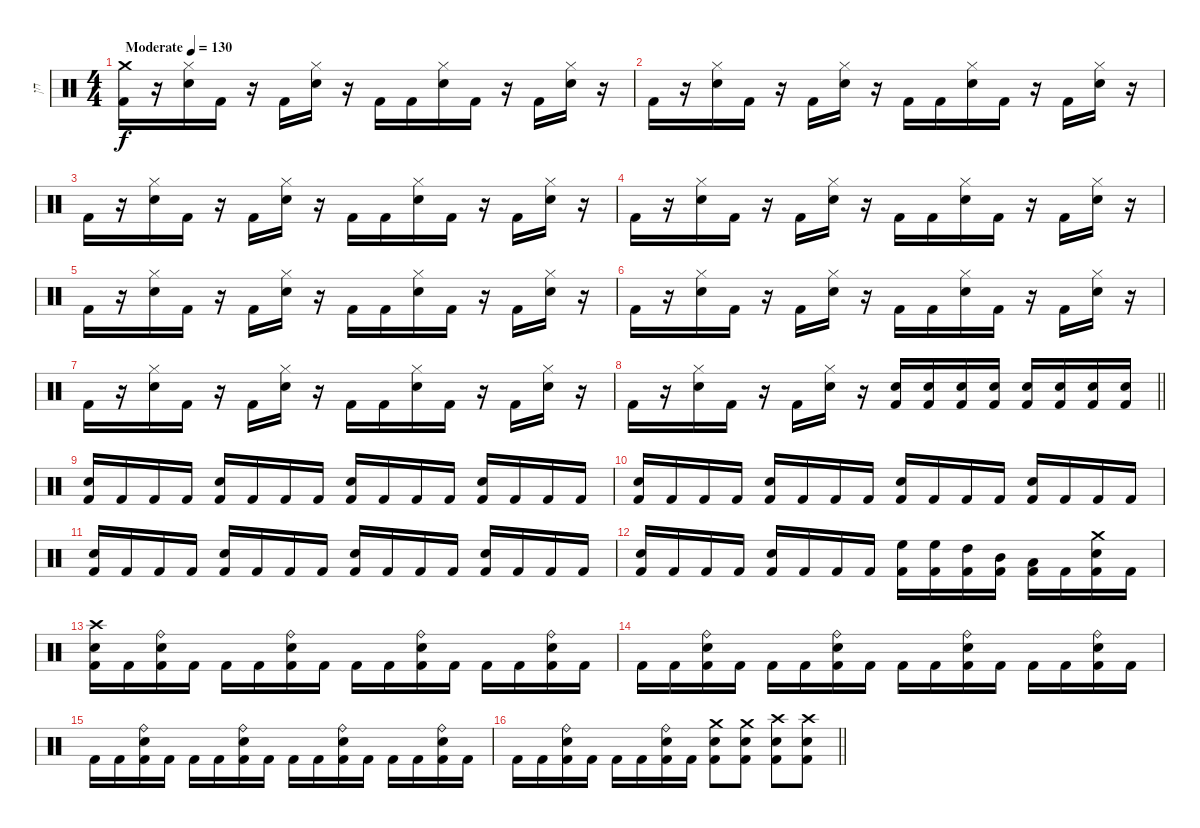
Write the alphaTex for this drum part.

\track ("חן" "חן") {instrument percussion}
\staff {score}
\articulation defaults
\ts (4 4)
\tempo (130 "Moderate")
\clef neutral
\ks c
("Crash medium (hit)" "Kick (hit) 2").16{dy f} r.16 ("Hi-Hat (closed)" "Electric Snare (hit)").16 "Kick (hit) 2".16 r.16 "Kick (hit) 2".16 ("Hi-Hat (closed)" "Electric Snare (hit)").16 r.16 "Kick (hit) 2".16 "Kick (hit) 2".16 ("Hi-Hat (closed)" "Electric Snare (hit)").16 "Kick (hit) 2".16 r.16 "Kick (hit) 2".16 ("Hi-Hat (closed)" "Electric Snare (hit)").16 r.16 |
"Kick (hit) 2".16 r.16 ("Hi-Hat (closed)" "Electric Snare (hit)").16 "Kick (hit) 2".16 r.16 "Kick (hit) 2".16 ("Hi-Hat (closed)" "Electric Snare (hit)").16 r.16 "Kick (hit) 2".16 "Kick (hit) 2".16 ("Hi-Hat (closed)" "Electric Snare (hit)").16 "Kick (hit) 2".16 r.16 "Kick (hit) 2".16 ("Hi-Hat (closed)" "Electric Snare (hit)").16 r.16 |
"Kick (hit) 2".16 r.16 ("Hi-Hat (closed)" "Electric Snare (hit)").16 "Kick (hit) 2".16 r.16 "Kick (hit) 2".16 ("Hi-Hat (closed)" "Electric Snare (hit)").16 r.16 "Kick (hit) 2".16 "Kick (hit) 2".16 ("Hi-Hat (closed)" "Electric Snare (hit)").16 "Kick (hit) 2".16 r.16 "Kick (hit) 2".16 ("Hi-Hat (closed)" "Electric Snare (hit)").16 r.16 |
"Kick (hit) 2".16 r.16 ("Hi-Hat (closed)" "Electric Snare (hit)").16 "Kick (hit) 2".16 r.16 "Kick (hit) 2".16 ("Hi-Hat (closed)" "Electric Snare (hit)").16 r.16 "Kick (hit) 2".16 "Kick (hit) 2".16 ("Hi-Hat (closed)" "Electric Snare (hit)").16 "Kick (hit) 2".16 r.16 "Kick (hit) 2".16 ("Hi-Hat (closed)" "Electric Snare (hit)").16 r.16 |
"Kick (hit) 2".16 r.16 ("Hi-Hat (closed)" "Electric Snare (hit)").16 "Kick (hit) 2".16 r.16 "Kick (hit) 2".16 ("Hi-Hat (closed)" "Electric Snare (hit)").16 r.16 "Kick (hit) 2".16 "Kick (hit) 2".16 ("Hi-Hat (closed)" "Electric Snare (hit)").16 "Kick (hit) 2".16 r.16 "Kick (hit) 2".16 ("Hi-Hat (closed)" "Electric Snare (hit)").16 r.16 |
"Kick (hit) 2".16 r.16 ("Hi-Hat (closed)" "Electric Snare (hit)").16 "Kick (hit) 2".16 r.16 "Kick (hit) 2".16 ("Hi-Hat (closed)" "Electric Snare (hit)").16 r.16 "Kick (hit) 2".16 "Kick (hit) 2".16 ("Hi-Hat (closed)" "Electric Snare (hit)").16 "Kick (hit) 2".16 r.16 "Kick (hit) 2".16 ("Hi-Hat (closed)" "Electric Snare (hit)").16 r.16 |
"Kick (hit) 2".16 r.16 ("Hi-Hat (closed)" "Electric Snare (hit)").16 "Kick (hit) 2".16 r.16 "Kick (hit) 2".16 ("Hi-Hat (closed)" "Electric Snare (hit)").16 r.16 "Kick (hit) 2".16 "Kick (hit) 2".16 ("Hi-Hat (closed)" "Electric Snare (hit)").16 "Kick (hit) 2".16 r.16 "Kick (hit) 2".16 ("Hi-Hat (closed)" "Electric Snare (hit)").16 r.16 |
\barLineRight lightlight "Kick (hit) 2".16
r.16 ("Hi-Hat (closed)" "Electric Snare (hit)").16 "Kick (hit) 2".16 r.16 "Kick (hit) 2".16 ("Hi-Hat (closed)" "Electric Snare (hit)").16 r.16 ("Electric Snare (hit)" "Kick (hit) 2").16 ("Electric Snare (hit)" "Kick (hit) 2").16 ("Electric Snare (hit)" "Kick (hit) 2").16 ("Electric Snare (hit)" "Kick (hit) 2").16 ("Electric Snare (hit)" "Kick (hit) 2").16 ("Electric Snare (hit)" "Kick (hit) 2").16 ("Electric Snare (hit)" "Kick (hit) 2").16 ("Electric Snare (hit)" "Kick (hit) 2").16 |
("Electric Snare (hit)" "Kick (hit) 2").16 "Kick (hit) 2".16 "Kick (hit) 2".16 "Kick (hit) 2".16 ("Electric Snare (hit)" "Kick (hit) 2").16 "Kick (hit) 2".16 "Kick (hit) 2".16 "Kick (hit) 2".16 ("Electric Snare (hit)" "Kick (hit) 2").16 "Kick (hit) 2".16 "Kick (hit) 2".16 "Kick (hit) 2".16 ("Electric Snare (hit)" "Kick (hit) 2").16 "Kick (hit) 2".16 "Kick (hit) 2".16 "Kick (hit) 2".16 |
("Electric Snare (hit)" "Kick (hit) 2").16 "Kick (hit) 2".16 "Kick (hit) 2".16 "Kick (hit) 2".16 ("Electric Snare (hit)" "Kick (hit) 2").16 "Kick (hit) 2".16 "Kick (hit) 2".16 "Kick (hit) 2".16 ("Electric Snare (hit)" "Kick (hit) 2").16 "Kick (hit) 2".16 "Kick (hit) 2".16 "Kick (hit) 2".16 ("Electric Snare (hit)" "Kick (hit) 2").16 "Kick (hit) 2".16 "Kick (hit) 2".16 "Kick (hit) 2".16 |
("Electric Snare (hit)" "Kick (hit) 2").16 "Kick (hit) 2".16 "Kick (hit) 2".16 "Kick (hit) 2".16 ("Electric Snare (hit)" "Kick (hit) 2").16 "Kick (hit) 2".16 "Kick (hit) 2".16 "Kick (hit) 2".16 ("Electric Snare (hit)" "Kick (hit) 2").16 "Kick (hit) 2".16 "Kick (hit) 2".16 "Kick (hit) 2".16 ("Electric Snare (hit)" "Kick (hit) 2").16 "Kick (hit) 2".16 "Kick (hit) 2".16 "Kick (hit) 2".16 |
("Electric Snare (hit)" "Kick (hit) 2").16 "Kick (hit) 2".16 "Kick (hit) 2".16 "Kick (hit) 2".16 ("Electric Snare (hit)" "Kick (hit) 2").16 "Kick (hit) 2".16 "Kick (hit) 2".16 "Kick (hit) 2".16 ("High Floor Tom (hit)" "Kick (hit) 2").16 ("High Floor Tom (hit)" "Kick (hit) 2").16 ("High Tom (hit)" "Kick (hit) 2").16 ("Mid Tom (hit)" "Kick (hit) 2").16 ("Low Tom (hit)" "Kick (hit) 2").16 "Kick (hit) 2".16 ("Crash medium (hit)" "Electric Snare (hit)" "Kick (hit) 2").16 "Kick (hit) 2".16 |
("Crash high (hit)" "Electric Snare (hit)" "Kick (hit) 2").16 "Kick (hit) 2".16 ("Ride (bell)" "Electric Snare (hit)" "Kick (hit) 2").16 "Kick (hit) 2".16 "Kick (hit) 2".16 "Kick (hit) 2".16 ("Ride (bell)" "Electric Snare (hit)" "Kick (hit) 2").16 "Kick (hit) 2".16 "Kick (hit) 2".16 "Kick (hit) 2".16 ("Ride (bell)" "Electric Snare (hit)" "Kick (hit) 2").16 "Kick (hit) 2".16 "Kick (hit) 2".16 "Kick (hit) 2".16 ("Ride (bell)" "Electric Snare (hit)" "Kick (hit) 2").16 "Kick (hit) 2".16 |
"Kick (hit) 2".16 "Kick (hit) 2".16 ("Ride (bell)" "Electric Snare (hit)" "Kick (hit) 2").16 "Kick (hit) 2".16 "Kick (hit) 2".16 "Kick (hit) 2".16 ("Ride (bell)" "Electric Snare (hit)" "Kick (hit) 2").16 "Kick (hit) 2".16 "Kick (hit) 2".16 "Kick (hit) 2".16 ("Ride (bell)" "Electric Snare (hit)" "Kick (hit) 2").16 "Kick (hit) 2".16 "Kick (hit) 2".16 "Kick (hit) 2".16 ("Ride (bell)" "Electric Snare (hit)" "Kick (hit) 2").16 "Kick (hit) 2".16 |
"Kick (hit) 2".16 "Kick (hit) 2".16 ("Ride (bell)" "Electric Snare (hit)" "Kick (hit) 2").16 "Kick (hit) 2".16 "Kick (hit) 2".16 "Kick (hit) 2".16 ("Ride (bell)" "Electric Snare (hit)" "Kick (hit) 2").16 "Kick (hit) 2".16 "Kick (hit) 2".16 "Kick (hit) 2".16 ("Ride (bell)" "Electric Snare (hit)" "Kick (hit) 2").16 "Kick (hit) 2".16 "Kick (hit) 2".16 "Kick (hit) 2".16 ("Ride (bell)" "Electric Snare (hit)" "Kick (hit) 2").16 "Kick (hit) 2".16 |
\barLineRight lightlight "Kick (hit) 2".16 "Kick (hit) 2".16
("Ride (bell)" "Electric Snare (hit)" "Kick (hit) 2").16 "Kick (hit) 2".16 "Kick (hit) 2".16 "Kick (hit) 2".16 ("Ride (bell)" "Electric Snare (hit)" "Kick (hit) 2").16 "Kick (hit) 2".16 ("Crash medium (hit)" "Electric Snare (hit)" "Kick (hit) 2").8 ("Crash medium (hit)" "Electric Snare (hit)" "Kick (hit) 2").8 ("Crash high (hit)" "Electric Snare (hit)" "Kick (hit) 2").8 ("Crash high (hit)" "Electric Snare (hit)" "Kick (hit) 2").8
